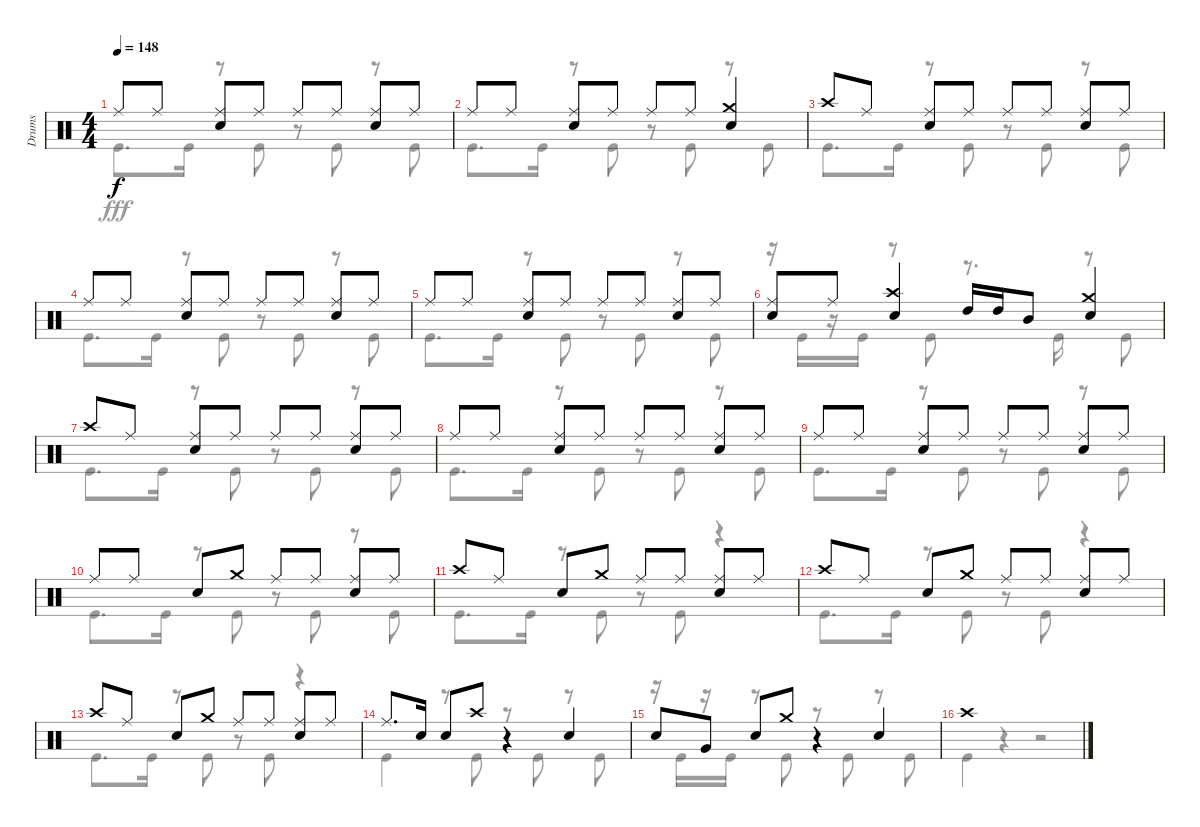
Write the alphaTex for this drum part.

\track ("Drums" "Drums") {instrument percussion}
\staff {score}
\articulation defaults
\voice
\ts (4 4)
\tempo 148
\clef neutral
\ks c "Ride (middle)".8{dy f} "Ride (middle)".8
("Ride (middle)" "Snare (hit) 2").8 "Ride (middle)".8 "Ride (middle)".8 "Ride (middle)".8 ("Ride (middle)" "Snare (hit) 2").8 "Ride (middle)".8 |
"Ride (middle)".8 "Ride (middle)".8 ("Ride (middle)" "Snare (hit) 2").8 "Ride (middle)".8 "Ride (middle)".8 "Ride (middle)".8 ("Crash medium (hit)" "Snare (hit) 2").4 |
"Crash high (hit)".8 "Ride (middle)".8 ("Ride (middle)" "Snare (hit) 2").8 "Ride (middle)".8 "Ride (middle)".8 "Ride (middle)".8 ("Ride (middle)" "Snare (hit) 2").8 "Ride (middle)".8 |
"Ride (middle)".8 "Ride (middle)".8 ("Ride (middle)" "Snare (hit) 2").8 "Ride (middle)".8 "Ride (middle)".8 "Ride (middle)".8 ("Ride (middle)" "Snare (hit) 2").8 "Ride (middle)".8 |
"Ride (middle)".8 "Ride (middle)".8 ("Ride (middle)" "Snare (hit) 2").8 "Ride (middle)".8 "Ride (middle)".8 "Ride (middle)".8 ("Ride (middle)" "Snare (hit) 2").8 "Ride (middle)".8 |
("Ride (middle)" "Snare (hit) 2").8 "Ride (middle)".8 ("Crash high (hit)" "Snare (hit) 2").4 "High Tom (hit)".16 "High Tom (hit)".16 "Mid Tom (hit)".8 ("Crash medium (hit)" "Snare (hit) 2").4 |
"Crash high (hit)".8 "Ride (middle)".8 ("Ride (middle)" "Snare (hit) 2").8 "Ride (middle)".8 "Ride (middle)".8 "Ride (middle)".8 ("Ride (middle)" "Snare (hit) 2").8 "Ride (middle)".8 |
"Ride (middle)".8 "Ride (middle)".8 ("Ride (middle)" "Snare (hit) 2").8 "Ride (middle)".8 "Ride (middle)".8 "Ride (middle)".8 ("Ride (middle)" "Snare (hit) 2").8 "Ride (middle)".8 |
"Ride (middle)".8 "Ride (middle)".8 ("Ride (middle)" "Snare (hit) 2").8 "Ride (middle)".8 "Ride (middle)".8 "Ride (middle)".8 ("Ride (middle)" "Snare (hit) 2").8 "Ride (middle)".8 |
"Ride (middle)".8 "Ride (middle)".8 "Snare (hit) 2".8 "Crash medium (hit)".8 "Ride (middle)".8 "Ride (middle)".8 ("Ride (middle)" "Snare (hit) 2").8 "Ride (middle)".8 |
"Crash high (hit)".8 "Ride (middle)".8 "Snare (hit) 2".8 "Crash medium (hit)".8 "Ride (middle)".8 "Ride (middle)".8 ("Ride (middle)" "Snare (hit) 2").8 "Ride (middle)".8 |
"Crash high (hit)".8 "Ride (middle)".8 "Snare (hit) 2".8 "Crash medium (hit)".8 "Ride (middle)".8 "Ride (middle)".8 ("Ride (middle)" "Snare (hit) 2").8 "Ride (middle)".8 |
"Crash high (hit)".8 "Ride (middle)".8 "Snare (hit) 2".8 "Crash medium (hit)".8 "Ride (middle)".8 "Ride (middle)".8 ("Ride (middle)" "Snare (hit) 2").8 "Ride (middle)".8 |
"Ride (middle)".8{d} "Snare (hit) 2".16 "Snare (hit) 2".8 "Crash high (hit)".8 r.4 "Snare (hit) 2".4 |
"Snare (hit) 2".8 "Very Low Tom (hit)".8 "Snare (hit) 2".8 "Crash medium (hit)".8 r.4 "Snare (hit) 2".4 |
"Crash high (hit)".1
\voice
\clef neutral
\ottava regular
\simile none
\ks c "Kick (hit)".8{d dy fff} "Kick (hit)".16
r.8 "Kick (hit)".8 r.8 "Kick (hit)".8 r.8 "Kick (hit)".8 |
"Kick (hit)".8{d} "Kick (hit)".16 r.8 "Kick (hit)".8 r.8 "Kick (hit)".8 r.8 "Kick (hit)".8 |
"Kick (hit)".8{d} "Kick (hit)".16 r.8 "Kick (hit)".8 r.8 "Kick (hit)".8 r.8 "Kick (hit)".8 |
"Kick (hit)".8{d} "Kick (hit)".16 r.8 "Kick (hit)".8 r.8 "Kick (hit)".8 r.8 "Kick (hit)".8 |
"Kick (hit)".8{d} "Kick (hit)".16 r.8 "Kick (hit)".8 r.8 "Kick (hit)".8 r.8 "Kick (hit)".8 |
r.16 "Kick (hit)".16 r.16 "Kick (hit)".16 r.8 "Kick (hit)".8 r.8{d} "Kick (hit)".16 r.8 "Kick (hit)".8 |
"Kick (hit)".8{d} "Kick (hit)".16 r.8 "Kick (hit)".8 r.8 "Kick (hit)".8 r.8 "Kick (hit)".8 |
"Kick (hit)".8{d} "Kick (hit)".16 r.8 "Kick (hit)".8 r.8 "Kick (hit)".8 r.8 "Kick (hit)".8 |
"Kick (hit)".8{d} "Kick (hit)".16 r.8 "Kick (hit)".8 r.8 "Kick (hit)".8 r.8 "Kick (hit)".8 |
"Kick (hit)".8{d} "Kick (hit)".16 r.8 "Kick (hit)".8 r.8 "Kick (hit)".8 r.8 "Kick (hit)".8 |
"Kick (hit)".8{d} "Kick (hit)".16 r.8 "Kick (hit)".8 r.8 "Kick (hit)".8 r.4 |
"Kick (hit)".8{d} "Kick (hit)".16 r.8 "Kick (hit)".8 r.8 "Kick (hit)".8 r.4 |
"Kick (hit)".8{d} "Kick (hit)".16 r.8 "Kick (hit)".8 r.8 "Kick (hit)".8 r.4 |
"Kick (hit)".4 r.8 "Kick (hit)".8 r.8 "Kick (hit)".8 r.8 "Kick (hit)".8 |
r.16 "Kick (hit)".16 r.16 "Kick (hit)".16 r.8 "Kick (hit)".8 r.8 "Kick (hit)".8 r.8 "Kick (hit)".8 |
"Kick (hit)".4 r.4 r.2
